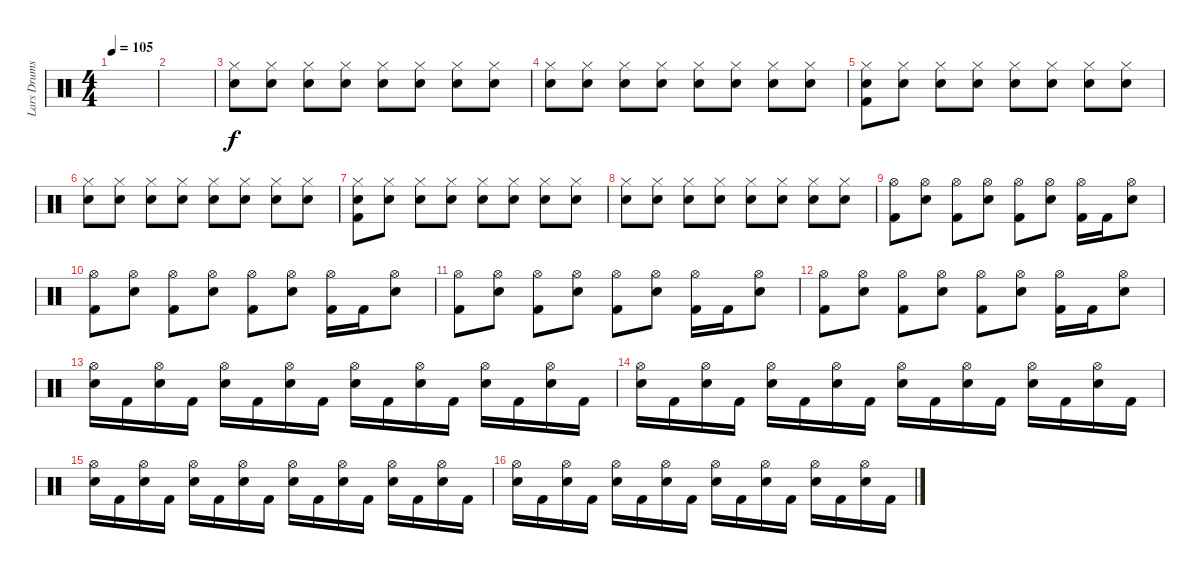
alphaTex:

\track ("Lars Drums" "Lars Drums") {instrument percussion}
\staff {score}
\articulation defaults
\ts (4 4)
\tempo 105
\clef neutral
\ks c
|
|
("Hi-Hat (closed)" "Snare (hit) 2").8 ("Hi-Hat (closed)" "Snare (hit) 2").8 ("Hi-Hat (closed)" "Snare (hit) 2").8 ("Hi-Hat (closed)" "Snare (hit) 2").8 ("Hi-Hat (closed)" "Snare (hit) 2").8 ("Hi-Hat (closed)" "Snare (hit) 2").8 ("Hi-Hat (closed)" "Snare (hit) 2").8 ("Hi-Hat (closed)" "Snare (hit) 2").8 |
("Hi-Hat (closed)" "Snare (hit) 2").8 ("Hi-Hat (closed)" "Snare (hit) 2").8 ("Hi-Hat (closed)" "Snare (hit) 2").8 ("Hi-Hat (closed)" "Snare (hit) 2").8 ("Hi-Hat (closed)" "Snare (hit) 2").8 ("Hi-Hat (closed)" "Snare (hit) 2").8 ("Hi-Hat (closed)" "Snare (hit) 2").8 ("Hi-Hat (closed)" "Snare (hit) 2").8 |
("Hi-Hat (closed)" "Kick (hit) 2" "Snare (hit) 2").8 ("Hi-Hat (closed)" "Snare (hit) 2").8 ("Hi-Hat (closed)" "Snare (hit) 2").8 ("Hi-Hat (closed)" "Snare (hit) 2").8 ("Hi-Hat (closed)" "Snare (hit) 2").8 ("Hi-Hat (closed)" "Snare (hit) 2").8 ("Hi-Hat (closed)" "Snare (hit) 2").8 ("Hi-Hat (closed)" "Snare (hit) 2").8 |
("Hi-Hat (closed)" "Snare (hit) 2").8 ("Hi-Hat (closed)" "Snare (hit) 2").8 ("Hi-Hat (closed)" "Snare (hit) 2").8 ("Hi-Hat (closed)" "Snare (hit) 2").8 ("Hi-Hat (closed)" "Snare (hit) 2").8 ("Hi-Hat (closed)" "Snare (hit) 2").8 ("Hi-Hat (closed)" "Snare (hit) 2").8 ("Hi-Hat (closed)" "Snare (hit) 2").8 |
("Hi-Hat (closed)" "Kick (hit) 2" "Snare (hit) 2").8 ("Hi-Hat (closed)" "Snare (hit) 2").8 ("Hi-Hat (closed)" "Snare (hit) 2").8 ("Hi-Hat (closed)" "Snare (hit) 2").8 ("Hi-Hat (closed)" "Snare (hit) 2").8 ("Hi-Hat (closed)" "Snare (hit) 2").8 ("Hi-Hat (closed)" "Snare (hit) 2").8 ("Hi-Hat (closed)" "Snare (hit) 2").8 |
("Hi-Hat (closed)" "Snare (hit) 2").8 ("Hi-Hat (closed)" "Snare (hit) 2").8 ("Hi-Hat (closed)" "Snare (hit) 2").8 ("Hi-Hat (closed)" "Snare (hit) 2").8 ("Hi-Hat (closed)" "Snare (hit) 2").8 ("Hi-Hat (closed)" "Snare (hit) 2").8 ("Hi-Hat (closed)" "Snare (hit) 2").8 ("Hi-Hat (closed)" "Snare (hit) 2").8 |
("Hi-Hat (open)" "Kick (hit) 2").8 ("Hi-Hat (open)" "Snare (hit) 2").8 ("Hi-Hat (open)" "Kick (hit) 2").8 ("Hi-Hat (open)" "Snare (hit) 2").8 ("Hi-Hat (open)" "Kick (hit) 2").8 ("Hi-Hat (open)" "Snare (hit) 2").8 ("Hi-Hat (open)" "Kick (hit) 2").16 "Kick (hit) 2".16 ("Hi-Hat (open)" "Snare (hit) 2").8 |
("Hi-Hat (open)" "Kick (hit) 2").8 ("Hi-Hat (open)" "Snare (hit) 2").8 ("Hi-Hat (open)" "Kick (hit) 2").8 ("Hi-Hat (open)" "Snare (hit) 2").8 ("Hi-Hat (open)" "Kick (hit) 2").8 ("Hi-Hat (open)" "Snare (hit) 2").8 ("Hi-Hat (open)" "Kick (hit) 2").16 "Kick (hit) 2".16 ("Hi-Hat (open)" "Snare (hit) 2").8 |
("Hi-Hat (open)" "Kick (hit) 2").8 ("Hi-Hat (open)" "Snare (hit) 2").8 ("Hi-Hat (open)" "Kick (hit) 2").8 ("Hi-Hat (open)" "Snare (hit) 2").8 ("Hi-Hat (open)" "Kick (hit) 2").8 ("Hi-Hat (open)" "Snare (hit) 2").8 ("Hi-Hat (open)" "Kick (hit) 2").16 "Kick (hit) 2".16 ("Hi-Hat (open)" "Snare (hit) 2").8 |
("Hi-Hat (open)" "Kick (hit) 2").8 ("Hi-Hat (open)" "Snare (hit) 2").8 ("Hi-Hat (open)" "Kick (hit) 2").8 ("Hi-Hat (open)" "Snare (hit) 2").8 ("Hi-Hat (open)" "Kick (hit) 2").8 ("Hi-Hat (open)" "Snare (hit) 2").8 ("Hi-Hat (open)" "Kick (hit) 2").16 "Kick (hit) 2".16 ("Hi-Hat (open)" "Snare (hit) 2").8 |
("Hi-Hat (open)" "Snare (hit) 2").16 "Kick (hit) 2".16 ("Hi-Hat (open)" "Snare (hit) 2").16 "Kick (hit) 2".16 ("Hi-Hat (open)" "Snare (hit) 2").16 "Kick (hit) 2".16 ("Hi-Hat (open)" "Snare (hit) 2").16 "Kick (hit) 2".16 ("Hi-Hat (open)" "Snare (hit) 2").16 "Kick (hit) 2".16 ("Hi-Hat (open)" "Snare (hit) 2").16 "Kick (hit) 2".16 ("Hi-Hat (open)" "Snare (hit) 2").16 "Kick (hit) 2".16 ("Hi-Hat (open)" "Snare (hit) 2").16 "Kick (hit) 2".16 |
("Hi-Hat (open)" "Snare (hit) 2").16 "Kick (hit) 2".16 ("Hi-Hat (open)" "Snare (hit) 2").16 "Kick (hit) 2".16 ("Hi-Hat (open)" "Snare (hit) 2").16 "Kick (hit) 2".16 ("Hi-Hat (open)" "Snare (hit) 2").16 "Kick (hit) 2".16 ("Hi-Hat (open)" "Snare (hit) 2").16 "Kick (hit) 2".16 ("Hi-Hat (open)" "Snare (hit) 2").16 "Kick (hit) 2".16 ("Hi-Hat (open)" "Snare (hit) 2").16 "Kick (hit) 2".16 ("Hi-Hat (open)" "Snare (hit) 2").16 "Kick (hit) 2".16 |
("Hi-Hat (open)" "Snare (hit) 2").16 "Kick (hit) 2".16 ("Hi-Hat (open)" "Snare (hit) 2").16 "Kick (hit) 2".16 ("Hi-Hat (open)" "Snare (hit) 2").16 "Kick (hit) 2".16 ("Hi-Hat (open)" "Snare (hit) 2").16 "Kick (hit) 2".16 ("Hi-Hat (open)" "Snare (hit) 2").16 "Kick (hit) 2".16 ("Hi-Hat (open)" "Snare (hit) 2").16 "Kick (hit) 2".16 ("Hi-Hat (open)" "Snare (hit) 2").16 "Kick (hit) 2".16 ("Hi-Hat (open)" "Snare (hit) 2").16 "Kick (hit) 2".16 |
("Hi-Hat (open)" "Snare (hit) 2").16 "Kick (hit) 2".16 ("Hi-Hat (open)" "Snare (hit) 2").16 "Kick (hit) 2".16 ("Hi-Hat (open)" "Snare (hit) 2").16 "Kick (hit) 2".16 ("Hi-Hat (open)" "Snare (hit) 2").16 "Kick (hit) 2".16 ("Hi-Hat (open)" "Snare (hit) 2").16 "Kick (hit) 2".16 ("Hi-Hat (open)" "Snare (hit) 2").16 "Kick (hit) 2".16 ("Hi-Hat (open)" "Snare (hit) 2").16 "Kick (hit) 2".16 ("Hi-Hat (open)" "Snare (hit) 2").16 "Kick (hit) 2".16
